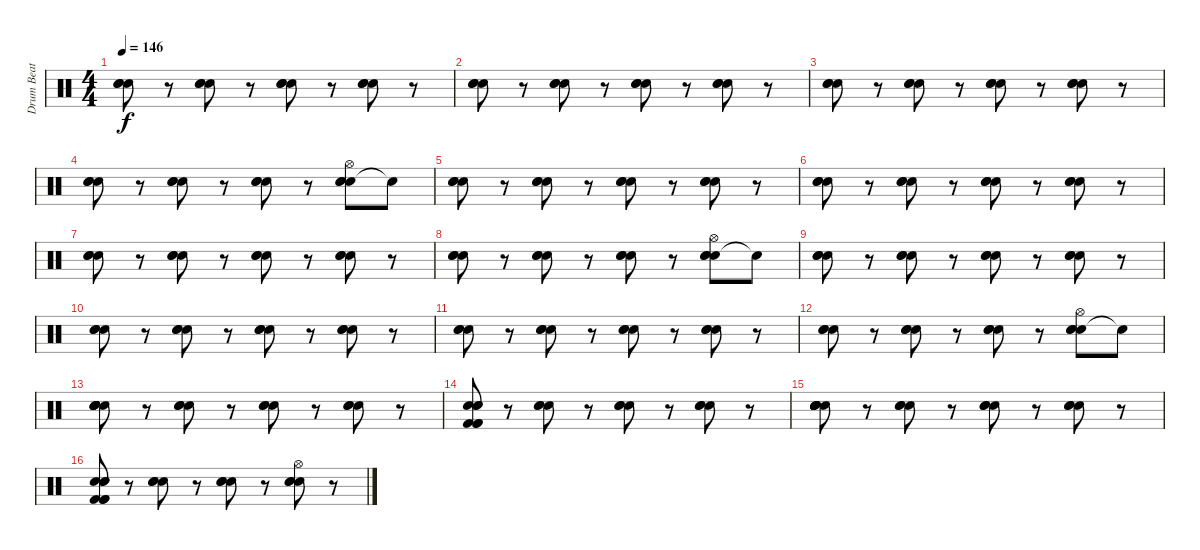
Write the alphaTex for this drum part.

\track ("Drum Beat" "Drum Beat") {instrument percussion}
\staff {score}
\articulation defaults
\ts (4 4)
\tempo 146
\clef neutral
\ks c
("Hand Clap (hit)" "Hand Clap (hit)" "Hand Clap (hit)").8{dy f} r.8 ("Hand Clap (hit)" "Hand Clap (hit)" "Hand Clap (hit)").8 r.8 ("Hand Clap (hit)" "Hand Clap (hit)" "Hand Clap (hit)").8 r.8 ("Hand Clap (hit)" "Hand Clap (hit)" "Hand Clap (hit)").8 r.8 |
("Hand Clap (hit)" "Hand Clap (hit)" "Hand Clap (hit)").8 r.8 ("Hand Clap (hit)" "Hand Clap (hit)" "Hand Clap (hit)").8 r.8 ("Hand Clap (hit)" "Hand Clap (hit)" "Hand Clap (hit)").8 r.8 ("Hand Clap (hit)" "Hand Clap (hit)" "Hand Clap (hit)").8 r.8 |
("Hand Clap (hit)" "Hand Clap (hit)" "Hand Clap (hit)").8 r.8 ("Hand Clap (hit)" "Hand Clap (hit)" "Hand Clap (hit)").8 r.8 ("Hand Clap (hit)" "Hand Clap (hit)" "Hand Clap (hit)").8 r.8 ("Hand Clap (hit)" "Hand Clap (hit)" "Hand Clap (hit)").8 r.8 |
("Hand Clap (hit)" "Hand Clap (hit)" "Hand Clap (hit)").8 r.8 ("Hand Clap (hit)" "Hand Clap (hit)" "Hand Clap (hit)").8 r.8 ("Hand Clap (hit)" "Hand Clap (hit)" "Hand Clap (hit)").8 r.8 ("Hand Clap (hit)" "Hand Clap (hit)" "Hand Clap (hit)" "Hi-Hat (open)").8 "Snare (hit)"{t}.8 |
("Hand Clap (hit)" "Hand Clap (hit)" "Hand Clap (hit)").8 r.8 ("Hand Clap (hit)" "Hand Clap (hit)" "Hand Clap (hit)").8 r.8 ("Hand Clap (hit)" "Hand Clap (hit)" "Hand Clap (hit)").8 r.8 ("Hand Clap (hit)" "Hand Clap (hit)" "Hand Clap (hit)").8 r.8 |
("Hand Clap (hit)" "Hand Clap (hit)" "Hand Clap (hit)").8 r.8 ("Hand Clap (hit)" "Hand Clap (hit)" "Hand Clap (hit)").8 r.8 ("Hand Clap (hit)" "Hand Clap (hit)" "Hand Clap (hit)").8 r.8 ("Hand Clap (hit)" "Hand Clap (hit)" "Hand Clap (hit)").8 r.8 |
("Hand Clap (hit)" "Hand Clap (hit)" "Hand Clap (hit)").8 r.8 ("Hand Clap (hit)" "Hand Clap (hit)" "Hand Clap (hit)").8 r.8 ("Hand Clap (hit)" "Hand Clap (hit)" "Hand Clap (hit)").8 r.8 ("Hand Clap (hit)" "Hand Clap (hit)" "Hand Clap (hit)").8 r.8 |
("Hand Clap (hit)" "Hand Clap (hit)" "Hand Clap (hit)").8 r.8 ("Hand Clap (hit)" "Hand Clap (hit)" "Hand Clap (hit)").8 r.8 ("Hand Clap (hit)" "Hand Clap (hit)" "Hand Clap (hit)").8 r.8 ("Hand Clap (hit)" "Hand Clap (hit)" "Hand Clap (hit)" "Hi-Hat (open)").8 "Snare (hit)"{t}.8 |
("Hand Clap (hit)" "Hand Clap (hit)" "Hand Clap (hit)").8 r.8 ("Hand Clap (hit)" "Hand Clap (hit)" "Hand Clap (hit)").8 r.8 ("Hand Clap (hit)" "Hand Clap (hit)" "Hand Clap (hit)").8 r.8 ("Hand Clap (hit)" "Hand Clap (hit)" "Hand Clap (hit)").8 r.8 |
("Hand Clap (hit)" "Hand Clap (hit)" "Hand Clap (hit)").8 r.8 ("Hand Clap (hit)" "Hand Clap (hit)" "Hand Clap (hit)").8 r.8 ("Hand Clap (hit)" "Hand Clap (hit)" "Hand Clap (hit)").8 r.8 ("Hand Clap (hit)" "Hand Clap (hit)" "Hand Clap (hit)").8 r.8 |
("Hand Clap (hit)" "Hand Clap (hit)" "Hand Clap (hit)").8 r.8 ("Hand Clap (hit)" "Hand Clap (hit)" "Hand Clap (hit)").8 r.8 ("Hand Clap (hit)" "Hand Clap (hit)" "Hand Clap (hit)").8 r.8 ("Hand Clap (hit)" "Hand Clap (hit)" "Hand Clap (hit)").8 r.8 |
("Hand Clap (hit)" "Hand Clap (hit)" "Hand Clap (hit)").8 r.8 ("Hand Clap (hit)" "Hand Clap (hit)" "Hand Clap (hit)").8 r.8 ("Hand Clap (hit)" "Hand Clap (hit)" "Hand Clap (hit)").8 r.8 ("Hand Clap (hit)" "Hand Clap (hit)" "Hand Clap (hit)" "Hi-Hat (open)").8 "Snare (hit)"{t}.8 |
("Hand Clap (hit)" "Hand Clap (hit)" "Hand Clap (hit)" "Electric Snare (hit)" "Electric Snare (hit)" "Electric Snare (hit)").8 r.8 ("Hand Clap (hit)" "Hand Clap (hit)" "Hand Clap (hit)").8 r.8 ("Hand Clap (hit)" "Hand Clap (hit)" "Hand Clap (hit)").8 r.8 ("Hand Clap (hit)" "Hand Clap (hit)" "Hand Clap (hit)").8 r.8 |
("Hand Clap (hit)" "Hand Clap (hit)" "Hand Clap (hit)" "Kick (hit) 2" "Kick (hit) 2" "Kick (hit) 2").8 r.8 ("Hand Clap (hit)" "Hand Clap (hit)" "Hand Clap (hit)").8 r.8 ("Hand Clap (hit)" "Hand Clap (hit)" "Hand Clap (hit)").8 r.8 ("Hand Clap (hit)" "Hand Clap (hit)" "Hand Clap (hit)").8 r.8 |
("Hand Clap (hit)" "Hand Clap (hit)" "Hand Clap (hit)" "Electric Snare (hit)" "Electric Snare (hit)" "Electric Snare (hit)").8 r.8 ("Hand Clap (hit)" "Hand Clap (hit)" "Hand Clap (hit)").8 r.8 ("Hand Clap (hit)" "Hand Clap (hit)" "Hand Clap (hit)").8 r.8 ("Hand Clap (hit)" "Hand Clap (hit)" "Hand Clap (hit)").8 r.8 |
("Hand Clap (hit)" "Hand Clap (hit)" "Hand Clap (hit)" "Kick (hit) 2" "Kick (hit) 2" "Kick (hit) 2").8 r.8 ("Hand Clap (hit)" "Hand Clap (hit)" "Hand Clap (hit)").8 r.8 ("Hand Clap (hit)" "Hand Clap (hit)" "Hand Clap (hit)").8 r.8 ("Hand Clap (hit)" "Hand Clap (hit)" "Hand Clap (hit)" "Hi-Hat (open)").8 r.8
